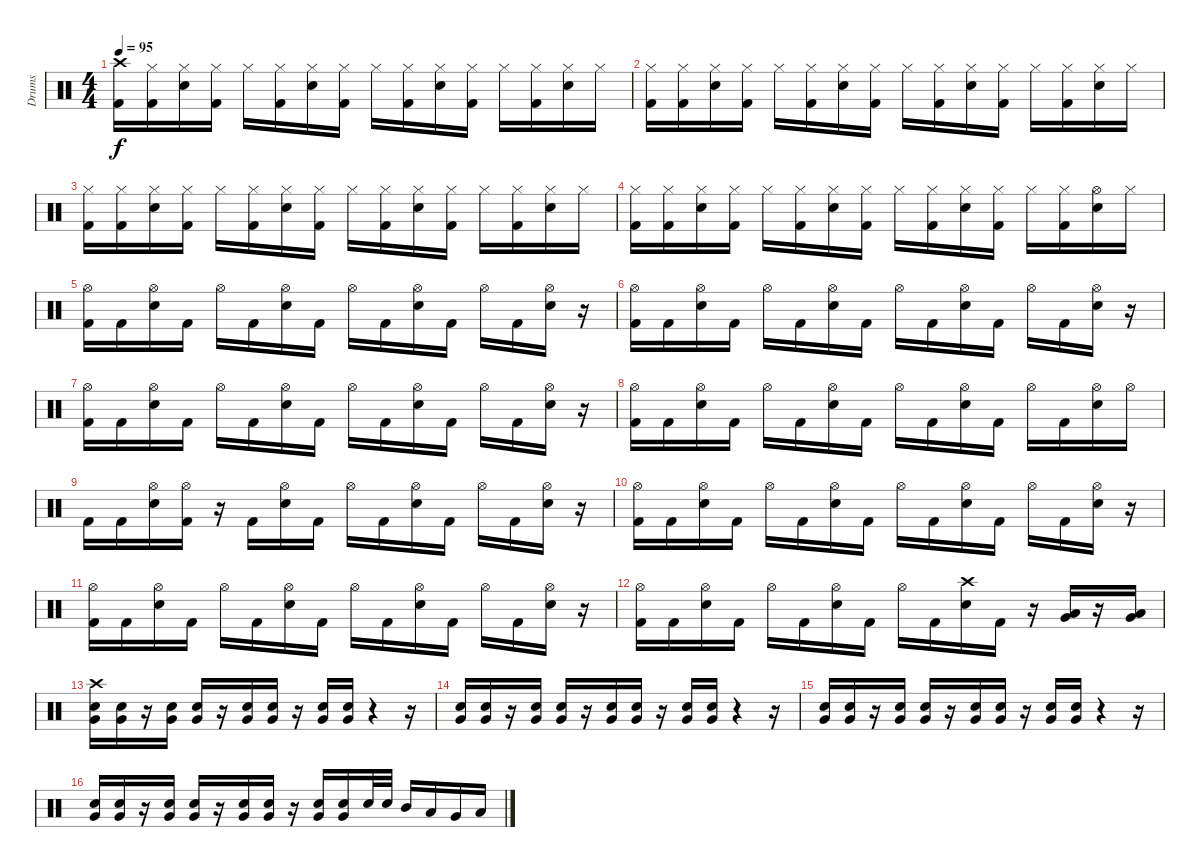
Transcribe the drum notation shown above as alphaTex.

\track ("Drums" "Drums") {instrument percussion}
\staff {score}
\articulation defaults
\ts (4 4)
\tempo 95
\clef neutral
\ks c
("Crash high (hit)" "Kick (hit) 2").16{dy f} ("Hi-Hat (closed)" "Kick (hit) 2").16 ("Hi-Hat (closed)" "Electric Snare (hit)").16 ("Hi-Hat (closed)" "Kick (hit) 2").16 "Hi-Hat (closed)".16 ("Hi-Hat (closed)" "Kick (hit) 2").16 ("Hi-Hat (closed)" "Electric Snare (hit)").16 ("Hi-Hat (closed)" "Kick (hit) 2").16 "Hi-Hat (closed)".16 ("Hi-Hat (closed)" "Kick (hit) 2").16 ("Hi-Hat (closed)" "Electric Snare (hit)").16 ("Hi-Hat (closed)" "Kick (hit) 2").16 "Hi-Hat (closed)".16 ("Hi-Hat (closed)" "Kick (hit) 2").16 ("Hi-Hat (closed)" "Electric Snare (hit)").16 "Hi-Hat (closed)".16 |
("Hi-Hat (closed)" "Kick (hit) 2").16 ("Hi-Hat (closed)" "Kick (hit) 2").16 ("Hi-Hat (closed)" "Electric Snare (hit)").16 ("Hi-Hat (closed)" "Kick (hit) 2").16 "Hi-Hat (closed)".16 ("Hi-Hat (closed)" "Kick (hit) 2").16 ("Hi-Hat (closed)" "Electric Snare (hit)").16 ("Hi-Hat (closed)" "Kick (hit) 2").16 "Hi-Hat (closed)".16 ("Hi-Hat (closed)" "Kick (hit) 2").16 ("Hi-Hat (closed)" "Electric Snare (hit)").16 ("Hi-Hat (closed)" "Kick (hit) 2").16 "Hi-Hat (closed)".16 ("Hi-Hat (closed)" "Kick (hit) 2").16 ("Hi-Hat (closed)" "Electric Snare (hit)").16 "Hi-Hat (closed)".16 |
("Hi-Hat (closed)" "Kick (hit) 2").16 ("Hi-Hat (closed)" "Kick (hit) 2").16 ("Hi-Hat (closed)" "Electric Snare (hit)").16 ("Hi-Hat (closed)" "Kick (hit) 2").16 "Hi-Hat (closed)".16 ("Hi-Hat (closed)" "Kick (hit) 2").16 ("Hi-Hat (closed)" "Electric Snare (hit)").16 ("Hi-Hat (closed)" "Kick (hit) 2").16 "Hi-Hat (closed)".16 ("Hi-Hat (closed)" "Kick (hit) 2").16 ("Hi-Hat (closed)" "Electric Snare (hit)").16 ("Hi-Hat (closed)" "Kick (hit) 2").16 "Hi-Hat (closed)".16 ("Hi-Hat (closed)" "Kick (hit) 2").16 ("Hi-Hat (closed)" "Electric Snare (hit)").16 "Hi-Hat (closed)".16 |
("Hi-Hat (closed)" "Kick (hit) 2").16 ("Hi-Hat (closed)" "Kick (hit) 2").16 ("Hi-Hat (closed)" "Electric Snare (hit)").16 ("Hi-Hat (closed)" "Kick (hit) 2").16 "Hi-Hat (closed)".16 ("Hi-Hat (closed)" "Kick (hit) 2").16 ("Hi-Hat (closed)" "Electric Snare (hit)").16 ("Hi-Hat (closed)" "Kick (hit) 2").16 "Hi-Hat (closed)".16 ("Hi-Hat (closed)" "Kick (hit) 2").16 ("Hi-Hat (closed)" "Electric Snare (hit)").16 ("Hi-Hat (closed)" "Kick (hit) 2").16 "Hi-Hat (closed)".16 ("Hi-Hat (closed)" "Kick (hit) 2").16 ("Hi-Hat (open)" "Electric Snare (hit)").16 "Hi-Hat (closed)".16 |
("Hi-Hat (open)" "Kick (hit) 2").16 "Kick (hit) 2".16 ("Hi-Hat (open)" "Electric Snare (hit)").16 "Kick (hit) 2".16 "Hi-Hat (open)".16 "Kick (hit) 2".16 ("Hi-Hat (open)" "Electric Snare (hit)").16 "Kick (hit) 2".16 "Hi-Hat (open)".16 "Kick (hit) 2".16 ("Hi-Hat (open)" "Electric Snare (hit)").16 "Kick (hit) 2".16 "Hi-Hat (open)".16 "Kick (hit) 2".16 ("Hi-Hat (open)" "Electric Snare (hit)").16 r.16 |
("Hi-Hat (open)" "Kick (hit) 2").16 "Kick (hit) 2".16 ("Hi-Hat (open)" "Electric Snare (hit)").16 "Kick (hit) 2".16 "Hi-Hat (open)".16 "Kick (hit) 2".16 ("Hi-Hat (open)" "Electric Snare (hit)").16 "Kick (hit) 2".16 "Hi-Hat (open)".16 "Kick (hit) 2".16 ("Hi-Hat (open)" "Electric Snare (hit)").16 "Kick (hit) 2".16 "Hi-Hat (open)".16 "Kick (hit) 2".16 ("Hi-Hat (open)" "Electric Snare (hit)").16 r.16 |
("Hi-Hat (open)" "Kick (hit) 2").16 "Kick (hit) 2".16 ("Hi-Hat (open)" "Electric Snare (hit)").16 "Kick (hit) 2".16 "Hi-Hat (open)".16 "Kick (hit) 2".16 ("Hi-Hat (open)" "Electric Snare (hit)").16 "Kick (hit) 2".16 "Hi-Hat (open)".16 "Kick (hit) 2".16 ("Hi-Hat (open)" "Electric Snare (hit)").16 "Kick (hit) 2".16 "Hi-Hat (open)".16 "Kick (hit) 2".16 ("Hi-Hat (open)" "Electric Snare (hit)").16 r.16 |
("Hi-Hat (open)" "Kick (hit) 2").16 "Kick (hit) 2".16 ("Hi-Hat (open)" "Electric Snare (hit)").16 "Kick (hit) 2".16 "Hi-Hat (open)".16 "Kick (hit) 2".16 ("Hi-Hat (open)" "Electric Snare (hit)").16 "Kick (hit) 2".16 "Hi-Hat (open)".16 "Kick (hit) 2".16 ("Hi-Hat (open)" "Electric Snare (hit)").16 "Kick (hit) 2".16 "Hi-Hat (open)".16 "Kick (hit) 2".16 ("Hi-Hat (open)" "Electric Snare (hit)").16 "Hi-Hat (open)".16 |
"Kick (hit) 2".16 "Kick (hit) 2".16 ("Hi-Hat (open)" "Electric Snare (hit)").16 ("Hi-Hat (open)" "Kick (hit) 2").16 r.16 "Kick (hit) 2".16 ("Hi-Hat (open)" "Electric Snare (hit)").16 "Kick (hit) 2".16 "Hi-Hat (open)".16 "Kick (hit) 2".16 ("Hi-Hat (open)" "Electric Snare (hit)").16 "Kick (hit) 2".16 "Hi-Hat (open)".16 "Kick (hit) 2".16 ("Hi-Hat (open)" "Electric Snare (hit)").16 r.16 |
("Hi-Hat (open)" "Kick (hit) 2").16 "Kick (hit) 2".16 ("Hi-Hat (open)" "Electric Snare (hit)").16 "Kick (hit) 2".16 "Hi-Hat (open)".16 "Kick (hit) 2".16 ("Hi-Hat (open)" "Electric Snare (hit)").16 "Kick (hit) 2".16 "Hi-Hat (open)".16 "Kick (hit) 2".16 ("Hi-Hat (open)" "Electric Snare (hit)").16 "Kick (hit) 2".16 "Hi-Hat (open)".16 "Kick (hit) 2".16 ("Hi-Hat (open)" "Electric Snare (hit)").16 r.16 |
("Hi-Hat (open)" "Kick (hit) 2").16 "Kick (hit) 2".16 ("Hi-Hat (open)" "Electric Snare (hit)").16 "Kick (hit) 2".16 "Hi-Hat (open)".16 "Kick (hit) 2".16 ("Hi-Hat (open)" "Electric Snare (hit)").16 "Kick (hit) 2".16 "Hi-Hat (open)".16 "Kick (hit) 2".16 ("Hi-Hat (open)" "Electric Snare (hit)").16 "Kick (hit) 2".16 "Hi-Hat (open)".16 "Kick (hit) 2".16 ("Hi-Hat (open)" "Electric Snare (hit)").16 r.16 |
("Hi-Hat (open)" "Kick (hit) 2").16 "Kick (hit) 2".16 ("Hi-Hat (open)" "Electric Snare (hit)").16 "Kick (hit) 2".16 "Hi-Hat (open)".16 "Kick (hit) 2".16 ("Hi-Hat (open)" "Electric Snare (hit)").16 "Kick (hit) 2".16 "Hi-Hat (open)".16 "Kick (hit) 2".16 ("Crash high (hit)" "Electric Snare (hit)").16 "Kick (hit) 2".16 r.16 ("Low Tom (hit)" "Very Low Tom (hit)").16 r.16 ("Low Tom (hit)" "Very Low Tom (hit)").16 |
("Crash high (hit)" "Electric Snare (hit)" "Very Low Tom (hit)").16 ("Electric Snare (hit)" "Very Low Tom (hit)").16 r.16 ("Electric Snare (hit)" "Very Low Tom (hit)").16 ("Electric Snare (hit)" "Very Low Tom (hit)").16 r.16 ("Electric Snare (hit)" "Very Low Tom (hit)").16 ("Electric Snare (hit)" "Very Low Tom (hit)").16 r.16 ("Electric Snare (hit)" "Very Low Tom (hit)").16 ("Electric Snare (hit)" "Very Low Tom (hit)").16 r.4 r.16 |
("Electric Snare (hit)" "Very Low Tom (hit)").16 ("Electric Snare (hit)" "Very Low Tom (hit)").16 r.16 ("Electric Snare (hit)" "Very Low Tom (hit)").16 ("Electric Snare (hit)" "Very Low Tom (hit)").16 r.16 ("Electric Snare (hit)" "Very Low Tom (hit)").16 ("Electric Snare (hit)" "Very Low Tom (hit)").16 r.16 ("Electric Snare (hit)" "Very Low Tom (hit)").16 ("Electric Snare (hit)" "Very Low Tom (hit)").16 r.4 r.16 |
("Electric Snare (hit)" "Very Low Tom (hit)").16 ("Electric Snare (hit)" "Very Low Tom (hit)").16 r.16 ("Electric Snare (hit)" "Very Low Tom (hit)").16 ("Electric Snare (hit)" "Very Low Tom (hit)").16 r.16 ("Electric Snare (hit)" "Very Low Tom (hit)").16 ("Electric Snare (hit)" "Very Low Tom (hit)").16 r.16 ("Electric Snare (hit)" "Very Low Tom (hit)").16 ("Electric Snare (hit)" "Very Low Tom (hit)").16 r.4 r.16 |
("Electric Snare (hit)" "Very Low Tom (hit)").16 ("Electric Snare (hit)" "Very Low Tom (hit)").16 r.16 ("Electric Snare (hit)" "Very Low Tom (hit)").16 ("Electric Snare (hit)" "Very Low Tom (hit)").16 r.16 ("Electric Snare (hit)" "Very Low Tom (hit)").16 ("Electric Snare (hit)" "Very Low Tom (hit)").16 r.16 ("Electric Snare (hit)" "Very Low Tom (hit)").16 ("Electric Snare (hit)" "Very Low Tom (hit)").16 "Electric Snare (hit)".32 "Electric Snare (hit)".32 "Mid Tom (hit)".16 "Low Tom (hit)".16 "Very Low Tom (hit)".16 "Low Floor Tom (hit)".16
